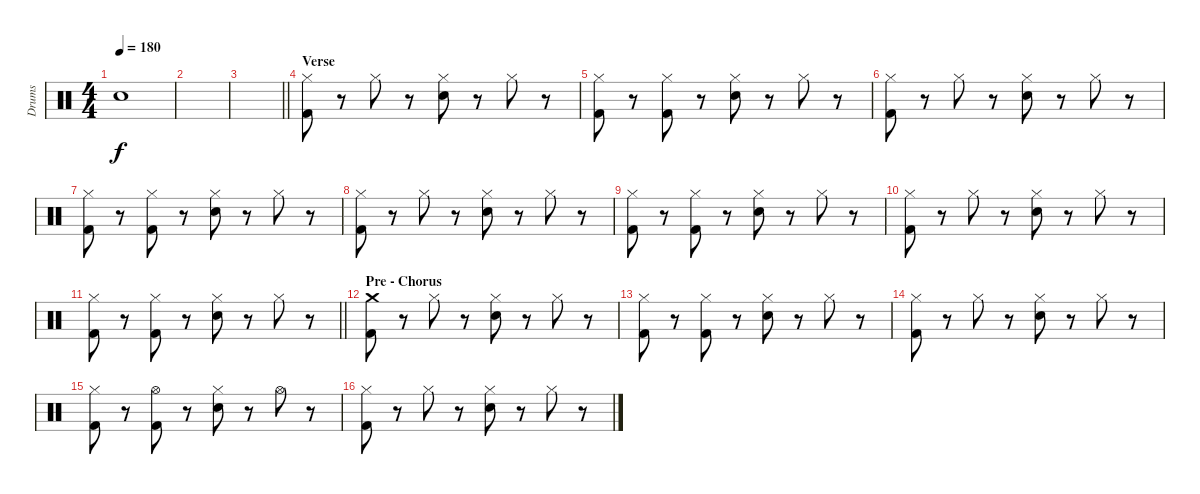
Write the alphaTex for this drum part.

\track ("Drums" "Drums") {instrument percussion}
\staff {score}
\articulation defaults
\ts (4 4)
\tempo 180
\clef neutral
\ks c "Snare (hit)"{t}.1{dy f}
|
|
\barLineRight lightlight
|
\section ("" "Verse")
("Hi-Hat (closed)" "Kick (hit) 2").8 r.8 "Hi-Hat (closed)".8 r.8 ("Hi-Hat (closed)" "Electric Snare (hit)").8 r.8 "Hi-Hat (closed)".8 r.8 |
("Hi-Hat (closed)" "Kick (hit) 2").8 r.8 ("Hi-Hat (closed)" "Kick (hit) 2").8 r.8 ("Hi-Hat (closed)" "Electric Snare (hit)").8 r.8 "Hi-Hat (closed)".8 r.8 |
("Hi-Hat (closed)" "Kick (hit) 2").8 r.8 "Hi-Hat (closed)".8 r.8 ("Hi-Hat (closed)" "Electric Snare (hit)").8 r.8 "Hi-Hat (closed)".8 r.8 |
("Hi-Hat (closed)" "Kick (hit) 2").8 r.8 ("Hi-Hat (closed)" "Kick (hit) 2").8 r.8 ("Hi-Hat (closed)" "Electric Snare (hit)").8 r.8 "Hi-Hat (closed)".8 r.8 |
("Hi-Hat (closed)" "Kick (hit) 2").8 r.8 "Hi-Hat (closed)".8 r.8 ("Hi-Hat (closed)" "Electric Snare (hit)").8 r.8 "Hi-Hat (closed)".8 r.8 |
("Hi-Hat (closed)" "Kick (hit) 2").8 r.8 ("Hi-Hat (closed)" "Kick (hit) 2").8 r.8 ("Hi-Hat (closed)" "Electric Snare (hit)").8 r.8 "Hi-Hat (closed)".8 r.8 |
("Hi-Hat (closed)" "Kick (hit) 2").8 r.8 "Hi-Hat (closed)".8 r.8 ("Hi-Hat (closed)" "Electric Snare (hit)").8 r.8 "Hi-Hat (closed)".8 r.8 |
\barLineRight lightlight
("Hi-Hat (closed)" "Kick (hit) 2").8 r.8 ("Hi-Hat (closed)" "Kick (hit) 2").8 r.8 ("Hi-Hat (closed)" "Electric Snare (hit)").8 r.8 "Hi-Hat (closed)".8 r.8 |
\section ("" "Pre - Chorus")
("Crash medium (hit)" "Kick (hit) 2").8 r.8 "Hi-Hat (closed)".8 r.8 ("Hi-Hat (closed)" "Electric Snare (hit)").8 r.8 "Hi-Hat (closed)".8 r.8 |
("Hi-Hat (closed)" "Kick (hit) 2").8 r.8 ("Hi-Hat (closed)" "Kick (hit) 2").8 r.8 ("Hi-Hat (closed)" "Electric Snare (hit)").8 r.8 "Hi-Hat (closed)".8 r.8 |
("Hi-Hat (closed)" "Kick (hit) 2").8 r.8 "Hi-Hat (closed)".8 r.8 ("Hi-Hat (closed)" "Electric Snare (hit)").8 r.8 "Hi-Hat (closed)".8 r.8 |
("Hi-Hat (closed)" "Kick (hit) 2").8 r.8 ("Hi-Hat (open)" "Kick (hit) 2").8 r.8 ("Hi-Hat (closed)" "Electric Snare (hit)").8 r.8 "Hi-Hat (open)".8 r.8 |
("Hi-Hat (closed)" "Kick (hit) 2").8 r.8 "Hi-Hat (closed)".8 r.8 ("Hi-Hat (closed)" "Electric Snare (hit)").8 r.8 "Hi-Hat (closed)".8 r.8
